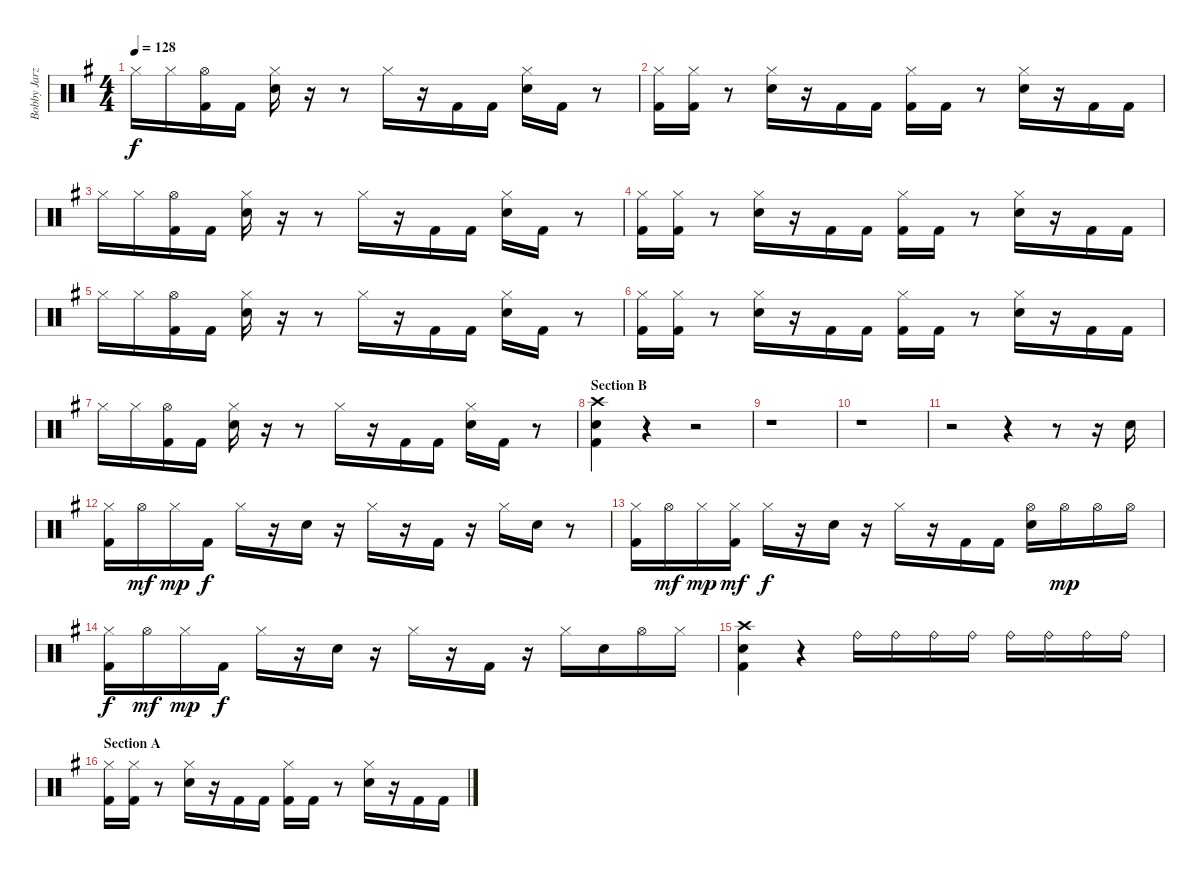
\track ("Bobby Jarzombek" "Bobby Jarz") {instrument percussion}
\staff {score}
\articulation defaults
\ts (4 4)
\tempo 128
\clef neutral
\ks eminor "Hi-Hat (closed)".16{dy f} "Hi-Hat (closed)".16
("Hi-Hat (open)" "Kick (hit) 2").16 "Kick (hit) 2".16 ("Hi-Hat (closed)" "Electric Snare (hit)").16 r.16 r.8 "Hi-Hat (closed)".16 r.16 "Kick (hit) 2".16 "Kick (hit) 2".16 ("Hi-Hat (closed)" "Electric Snare (hit)").16 "Kick (hit) 2".16 r.8 |
("Hi-Hat (closed)" "Kick (hit) 2").16 ("Hi-Hat (closed)" "Kick (hit) 2").16 r.8 ("Hi-Hat (closed)" "Electric Snare (hit)").16 r.16 "Kick (hit) 2".16 "Kick (hit) 2".16 ("Hi-Hat (closed)" "Kick (hit) 2").16 "Kick (hit) 2".16 r.8 ("Hi-Hat (closed)" "Electric Snare (hit)").16 r.16 "Kick (hit) 2".16 "Kick (hit) 2".16 |
"Hi-Hat (closed)".16 "Hi-Hat (closed)".16 ("Hi-Hat (open)" "Kick (hit) 2").16 "Kick (hit) 2".16 ("Hi-Hat (closed)" "Electric Snare (hit)").16 r.16 r.8 "Hi-Hat (closed)".16 r.16 "Kick (hit) 2".16 "Kick (hit) 2".16 ("Hi-Hat (closed)" "Electric Snare (hit)").16 "Kick (hit) 2".16 r.8 |
("Hi-Hat (closed)" "Kick (hit) 2").16 ("Hi-Hat (closed)" "Kick (hit) 2").16 r.8 ("Hi-Hat (closed)" "Electric Snare (hit)").16 r.16 "Kick (hit) 2".16 "Kick (hit) 2".16 ("Hi-Hat (closed)" "Kick (hit) 2").16 "Kick (hit) 2".16 r.8 ("Hi-Hat (closed)" "Electric Snare (hit)").16 r.16 "Kick (hit) 2".16 "Kick (hit) 2".16 |
"Hi-Hat (closed)".16 "Hi-Hat (closed)".16 ("Hi-Hat (open)" "Kick (hit) 2").16 "Kick (hit) 2".16 ("Hi-Hat (closed)" "Electric Snare (hit)").16 r.16 r.8 "Hi-Hat (closed)".16 r.16 "Kick (hit) 2".16 "Kick (hit) 2".16 ("Hi-Hat (closed)" "Electric Snare (hit)").16 "Kick (hit) 2".16 r.8 |
("Hi-Hat (closed)" "Kick (hit) 2").16 ("Hi-Hat (closed)" "Kick (hit) 2").16 r.8 ("Hi-Hat (closed)" "Electric Snare (hit)").16 r.16 "Kick (hit) 2".16 "Kick (hit) 2".16 ("Hi-Hat (closed)" "Kick (hit) 2").16 "Kick (hit) 2".16 r.8 ("Hi-Hat (closed)" "Electric Snare (hit)").16 r.16 "Kick (hit) 2".16 "Kick (hit) 2".16 |
"Hi-Hat (closed)".16 "Hi-Hat (closed)".16 ("Hi-Hat (open)" "Kick (hit) 2").16 "Kick (hit) 2".16 ("Hi-Hat (closed)" "Electric Snare (hit)").16 r.16 r.8 "Hi-Hat (closed)".16 r.16 "Kick (hit) 2".16 "Kick (hit) 2".16 ("Hi-Hat (closed)" "Electric Snare (hit)").16 "Kick (hit) 2".16 r.8 |
\section ("" "Section B")
("Crash high (hit)" "Electric Snare (hit)" "Kick (hit) 2").4 r.4 r.2 |
r.1 |
r.1 |
r.2 r.4 r.8 r.16 "Electric Snare (hit)".16 |
("Hi-Hat (closed)" "Kick (hit) 2").16 "Hi-Hat (open)".16{dy mf} "Hi-Hat (closed)".16{dy mp} "Kick (hit) 2".16{dy f} "Hi-Hat (closed)".16 r.16 "Electric Snare (hit)".16 r.16 "Hi-Hat (closed)".16 r.16 "Kick (hit) 2".16 r.16 "Hi-Hat (closed)".16 "Electric Snare (hit)".16 r.8 |
("Hi-Hat (closed)" "Kick (hit) 2").16 "Hi-Hat (open)".16{dy mf} "Hi-Hat (closed)".16{dy mp} ("Hi-Hat (closed)" "Kick (hit) 2").16{dy mf} "Hi-Hat (closed)".16{dy f} r.16 "Electric Snare (hit)".16 r.16 "Hi-Hat (closed)".16 r.16 "Kick (hit) 2".16 "Kick (hit) 2".16 ("Hi-Hat (open)" "Electric Snare (hit)").16 "Hi-Hat (open)".16{dy mp} "Hi-Hat (open)".16 "Hi-Hat (open)".16 |
("Hi-Hat (closed)" "Kick (hit) 2").16{dy f} "Hi-Hat (open)".16{dy mf} "Hi-Hat (closed)".16{dy mp} "Kick (hit) 2".16{dy f} "Hi-Hat (closed)".16 r.16 "Electric Snare (hit)".16 r.16 "Hi-Hat (closed)".16 r.16 "Kick (hit) 2".16 r.16 "Hi-Hat (closed)".16 "Electric Snare (hit)".16 "Hi-Hat (open)".16 "Hi-Hat (closed)".16 |
("Crash high (hit)" "Electric Snare (hit)" "Kick (hit) 2").4 r.4 "Ride (bell)".16 "Ride (bell)".16 "Ride (bell)".16 "Ride (bell)".16 "Ride (bell)".16 "Ride (bell)".16 "Ride (bell)".16 "Ride (bell)".16 |
\section ("" "Section A")
("Hi-Hat (closed)" "Kick (hit) 2").16 ("Hi-Hat (closed)" "Kick (hit) 2").16 r.8 ("Hi-Hat (closed)" "Electric Snare (hit)").16 r.16 "Kick (hit) 2".16 "Kick (hit) 2".16 ("Hi-Hat (closed)" "Kick (hit) 2").16 "Kick (hit) 2".16 r.8 ("Hi-Hat (closed)" "Electric Snare (hit)").16 r.16 "Kick (hit) 2".16 "Kick (hit) 2".16
